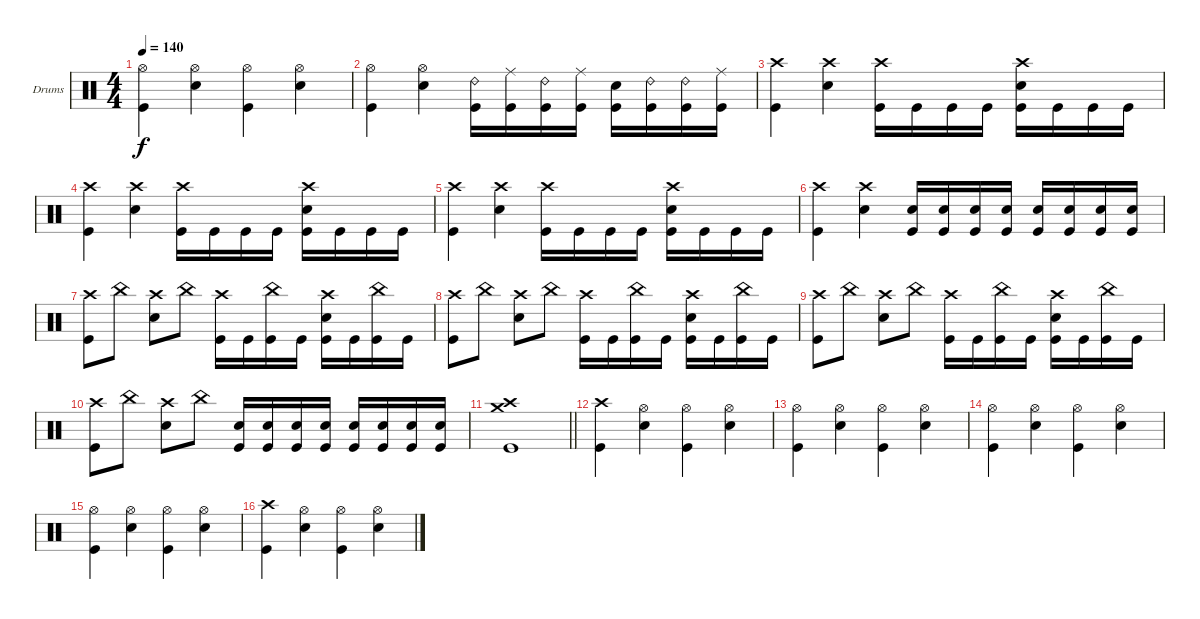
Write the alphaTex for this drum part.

\bracketExtendMode groupsimilarinstruments
\firstSystemTrackNameOrientation horizontal
\otherSystemsTrackNameOrientation horizontal
\track ("Drumkit" "Drums") {instrument percussion}
\staff {score}
\articulation defaults
\ts (4 4)
\tempo 140
\clef neutral
\ks c
("Hi-Hat (open)" "Kick (hit)").4{dy f} ("Hi-Hat (open)" "Snare (hit) 2").4 ("Hi-Hat (open)" "Kick (hit)").4 ("Hi-Hat (open)" "Snare (hit) 2").4 |
("Hi-Hat (open)" "Kick (hit)").4 ("Hi-Hat (open)" "Snare (hit) 2").4 ("Ride (bell) 2" "Kick (hit)").16 ("Ride (middle)" "Kick (hit)").16 ("Ride (bell) 2" "Kick (hit)").16 ("Ride (middle)" "Kick (hit)").16 ("Snare (hit) 2" "Kick (hit)").16 ("Ride (bell) 2" "Kick (hit)").16 ("Ride (bell) 2" "Kick (hit)").16 ("Ride (middle)" "Kick (hit)").16 |
("Crash high (hit)" "Kick (hit)").4 ("Crash high (hit)" "Snare (hit) 2").4 ("Crash high (hit)" "Kick (hit)").16 "Kick (hit)".16 "Kick (hit)".16 "Kick (hit)".16 ("Crash high (hit)" "Snare (hit) 2" "Kick (hit)").16 "Kick (hit)".16 "Kick (hit)".16 "Kick (hit)".16 |
("Crash high (hit)" "Kick (hit)").4 ("Crash high (hit)" "Snare (hit) 2").4 ("Crash high (hit)" "Kick (hit)").16 "Kick (hit)".16 "Kick (hit)".16 "Kick (hit)".16 ("Crash high (hit)" "Snare (hit) 2" "Kick (hit)").16 "Kick (hit)".16 "Kick (hit)".16 "Kick (hit)".16 |
("Crash high (hit)" "Kick (hit)").4 ("Crash high (hit)" "Snare (hit) 2").4 ("Crash high (hit)" "Kick (hit)").16 "Kick (hit)".16 "Kick (hit)".16 "Kick (hit)".16 ("Crash high (hit)" "Snare (hit) 2" "Kick (hit)").16 "Kick (hit)".16 "Kick (hit)".16 "Kick (hit)".16 |
("Crash high (hit)" "Kick (hit)").4 ("Crash high (hit)" "Snare (hit) 2").4 ("Snare (hit) 2" "Kick (hit)").16 ("Snare (hit) 2" "Kick (hit)").16 ("Snare (hit) 2" "Kick (hit)").16 ("Snare (hit) 2" "Kick (hit)").16 ("Snare (hit) 2" "Kick (hit)").16 ("Snare (hit) 2" "Kick (hit)").16 ("Snare (hit) 2" "Kick (hit)").16 ("Snare (hit) 2" "Kick (hit)").16 |
("Crash high (hit)" "Kick (hit)").8 "China (hit)".8 ("Crash high (hit)" "Snare (hit) 2").8 "China (hit)".8 ("Crash high (hit)" "Kick (hit)").16 "Kick (hit)".16 ("China (hit)" "Kick (hit)").16 "Kick (hit)".16 ("Crash high (hit)" "Snare (hit) 2" "Kick (hit)").16 "Kick (hit)".16 ("China (hit)" "Kick (hit)").16 "Kick (hit)".16 |
("Crash high (hit)" "Kick (hit)").8 "China (hit)".8 ("Crash high (hit)" "Snare (hit) 2").8 "China (hit)".8 ("Crash high (hit)" "Kick (hit)").16 "Kick (hit)".16 ("China (hit)" "Kick (hit)").16 "Kick (hit)".16 ("Crash high (hit)" "Snare (hit) 2" "Kick (hit)").16 "Kick (hit)".16 ("China (hit)" "Kick (hit)").16 "Kick (hit)".16 |
("Crash high (hit)" "Kick (hit)").8 "China (hit)".8 ("Crash high (hit)" "Snare (hit) 2").8 "China (hit)".8 ("Crash high (hit)" "Kick (hit)").16 "Kick (hit)".16 ("China (hit)" "Kick (hit)").16 "Kick (hit)".16 ("Crash high (hit)" "Snare (hit) 2" "Kick (hit)").16 "Kick (hit)".16 ("China (hit)" "Kick (hit)").16 "Kick (hit)".16 |
("Crash high (hit)" "Kick (hit)").8 "China (hit)".8 ("Crash high (hit)" "Snare (hit) 2").8 "China (hit)".8 ("Snare (hit) 2" "Kick (hit)").16 ("Snare (hit) 2" "Kick (hit)").16 ("Snare (hit) 2" "Kick (hit)").16 ("Snare (hit) 2" "Kick (hit)").16 ("Snare (hit) 2" "Kick (hit)").16 ("Snare (hit) 2" "Kick (hit)").16 ("Snare (hit) 2" "Kick (hit)").16 ("Snare (hit) 2" "Kick (hit)").16 |
\barLineRight lightlight
("Crash high (hit)" "Crash medium (hit)" "Kick (hit)").1 |
("Crash high (hit)" "Kick (hit)").4 ("Hi-Hat (open)" "Snare (hit) 2").4 ("Hi-Hat (open)" "Kick (hit)").4 ("Hi-Hat (open)" "Snare (hit) 2").4 |
("Hi-Hat (open)" "Kick (hit)").4 ("Hi-Hat (open)" "Snare (hit) 2").4 ("Hi-Hat (open)" "Kick (hit)").4 ("Hi-Hat (open)" "Snare (hit) 2").4 |
("Hi-Hat (open)" "Kick (hit)").4 ("Hi-Hat (open)" "Snare (hit) 2").4 ("Hi-Hat (open)" "Kick (hit)").4 ("Hi-Hat (open)" "Snare (hit) 2").4 |
("Hi-Hat (open)" "Kick (hit)").4 ("Hi-Hat (open)" "Snare (hit) 2").4 ("Hi-Hat (open)" "Kick (hit)").4 ("Hi-Hat (open)" "Snare (hit) 2").4 |
("Crash high (hit)" "Kick (hit)").4 ("Hi-Hat (open)" "Snare (hit) 2").4 ("Hi-Hat (open)" "Kick (hit)").4 ("Hi-Hat (open)" "Snare (hit) 2").4
